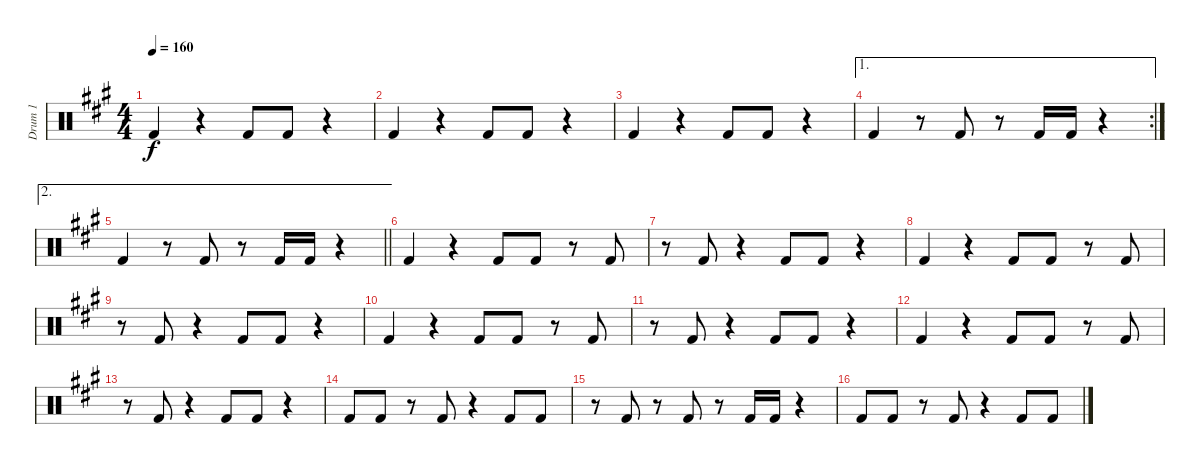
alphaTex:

\track ("Drum 1" "Drum 1") {instrument percussion}
\staff {score}
\articulation defaults
\ts (4 4)
\tempo 160
\clef neutral
\ks a "Kick (hit) 2".4{dy f}
r.4 "Kick (hit) 2".8 "Kick (hit) 2".8 r.4 |
"Kick (hit) 2".4 r.4 "Kick (hit) 2".8 "Kick (hit) 2".8 r.4 |
"Kick (hit) 2".4 r.4 "Kick (hit) 2".8 "Kick (hit) 2".8 r.4 |
\ae 1
\rc 2 "Kick (hit) 2".4
r.8 "Kick (hit) 2".8 r.8 "Kick (hit) 2".16 "Kick (hit) 2".16 r.4 |
\ae 2
\barLineRight lightlight "Kick (hit) 2".4
r.8 "Kick (hit) 2".8 r.8 "Kick (hit) 2".16 "Kick (hit) 2".16 r.4 |
"Kick (hit) 2".4 r.4 "Kick (hit) 2".8 "Kick (hit) 2".8 r.8 "Kick (hit) 2".8 |
r.8 "Kick (hit) 2".8 r.4 "Kick (hit) 2".8 "Kick (hit) 2".8 r.4 |
"Kick (hit) 2".4 r.4 "Kick (hit) 2".8 "Kick (hit) 2".8 r.8 "Kick (hit) 2".8 |
r.8 "Kick (hit) 2".8 r.4 "Kick (hit) 2".8 "Kick (hit) 2".8 r.4 |
"Kick (hit) 2".4 r.4 "Kick (hit) 2".8 "Kick (hit) 2".8 r.8 "Kick (hit) 2".8 |
r.8 "Kick (hit) 2".8 r.4 "Kick (hit) 2".8 "Kick (hit) 2".8 r.4 |
"Kick (hit) 2".4 r.4 "Kick (hit) 2".8 "Kick (hit) 2".8 r.8 "Kick (hit) 2".8 |
r.8 "Kick (hit) 2".8 r.4 "Kick (hit) 2".8 "Kick (hit) 2".8 r.4 |
"Kick (hit) 2".8 "Kick (hit) 2".8 r.8 "Kick (hit) 2".8 r.4 "Kick (hit) 2".8 "Kick (hit) 2".8 |
r.8 "Kick (hit) 2".8 r.8 "Kick (hit) 2".8 r.8 "Kick (hit) 2".16 "Kick (hit) 2".16 r.4 |
"Kick (hit) 2".8 "Kick (hit) 2".8 r.8 "Kick (hit) 2".8 r.4 "Kick (hit) 2".8 "Kick (hit) 2".8
